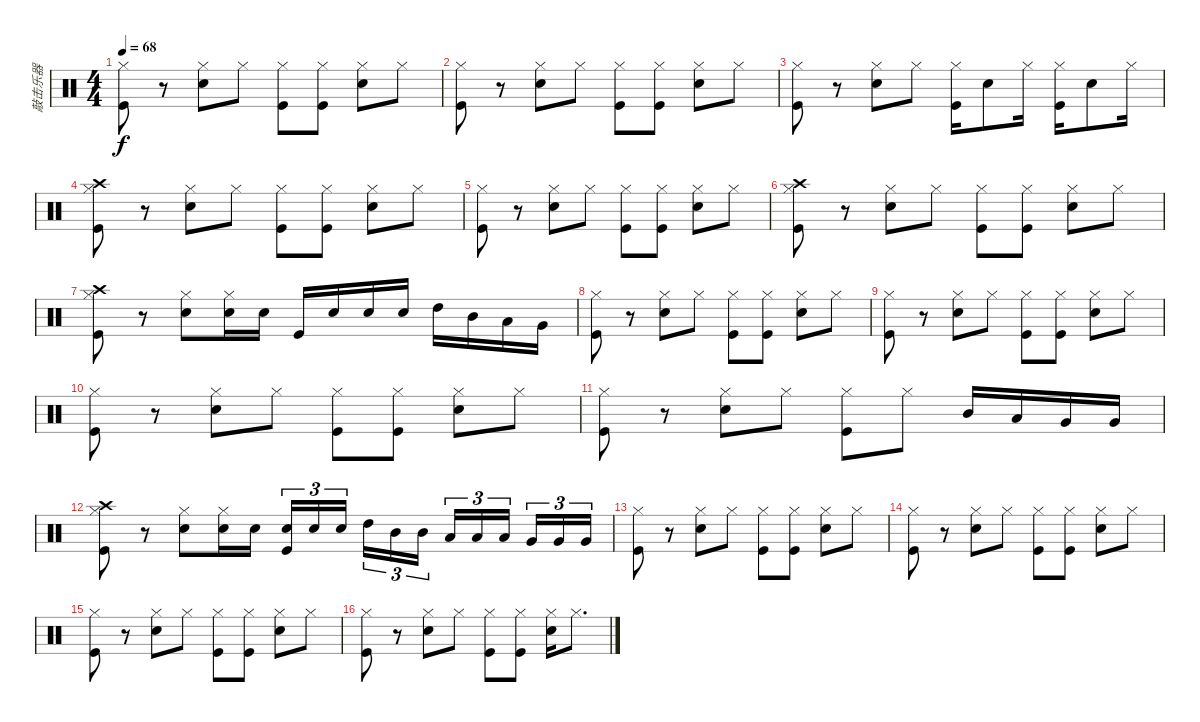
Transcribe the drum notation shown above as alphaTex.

\track ("敲击乐器" "敲击乐器") {instrument percussion}
\staff {score}
\articulation defaults
\ts (4 4)
\tempo 68
\clef neutral
\ks c
("Hi-Hat (closed)" "Kick (hit)").8{dy f} r.8 ("Hi-Hat (closed)" "Snare (hit) 2").8 "Hi-Hat (closed)".8 ("Hi-Hat (closed)" "Kick (hit)").8 ("Hi-Hat (closed)" "Kick (hit)").8 ("Hi-Hat (closed)" "Snare (hit) 2").8 "Hi-Hat (closed)".8 |
("Hi-Hat (closed)" "Kick (hit)").8 r.8 ("Hi-Hat (closed)" "Snare (hit) 2").8 "Hi-Hat (closed)".8 ("Hi-Hat (closed)" "Kick (hit)").8 ("Hi-Hat (closed)" "Kick (hit)").8 ("Hi-Hat (closed)" "Snare (hit) 2").8 "Hi-Hat (closed)".8 |
("Hi-Hat (closed)" "Kick (hit)").8 r.8 ("Hi-Hat (closed)" "Snare (hit) 2").8 "Hi-Hat (closed)".8 ("Hi-Hat (closed)" "Kick (hit)").16 "Snare (hit) 2".8 "Hi-Hat (closed)".16 ("Hi-Hat (closed)" "Kick (hit)").16 "Snare (hit) 2".8 "Hi-Hat (closed)".16 |
("Hi-Hat (closed)" "Crash high (hit)" "Kick (hit)").8 r.8 ("Hi-Hat (closed)" "Snare (hit) 2").8 "Hi-Hat (closed)".8 ("Hi-Hat (closed)" "Kick (hit)").8 ("Hi-Hat (closed)" "Kick (hit)").8 ("Hi-Hat (closed)" "Snare (hit) 2").8 "Hi-Hat (closed)".8 |
("Hi-Hat (closed)" "Kick (hit)").8 r.8 ("Hi-Hat (closed)" "Snare (hit) 2").8 "Hi-Hat (closed)".8 ("Hi-Hat (closed)" "Kick (hit)").8 ("Hi-Hat (closed)" "Kick (hit)").8 ("Hi-Hat (closed)" "Snare (hit) 2").8 "Hi-Hat (closed)".8 |
("Hi-Hat (closed)" "Crash high (hit)" "Kick (hit)").8 r.8 ("Hi-Hat (closed)" "Snare (hit) 2").8 "Hi-Hat (closed)".8 ("Hi-Hat (closed)" "Kick (hit)").8 ("Hi-Hat (closed)" "Kick (hit)").8 ("Hi-Hat (closed)" "Snare (hit) 2").8 "Hi-Hat (closed)".8 |
("Hi-Hat (closed)" "Crash high (hit)" "Kick (hit)").8 r.8 ("Hi-Hat (closed)" "Snare (hit) 2").8 ("Hi-Hat (closed)" "Snare (hit) 2").16 "Snare (hit) 2".16 "Kick (hit)".16 "Snare (hit) 2".16 "Snare (hit) 2".16 "Snare (hit) 2".16 "High Tom (hit)".16 "Mid Tom (hit)".16 "Low Tom (hit)".16 "Very Low Tom (hit)".16 |
("Hi-Hat (closed)" "Kick (hit)").8 r.8 ("Hi-Hat (closed)" "Snare (hit) 2").8 "Hi-Hat (closed)".8 ("Hi-Hat (closed)" "Kick (hit)").8 ("Hi-Hat (closed)" "Kick (hit)").8 ("Hi-Hat (closed)" "Snare (hit) 2").8 "Hi-Hat (closed)".8 |
("Hi-Hat (closed)" "Kick (hit)").8 r.8 ("Hi-Hat (closed)" "Snare (hit) 2").8 "Hi-Hat (closed)".8 ("Hi-Hat (closed)" "Kick (hit)").8 ("Hi-Hat (closed)" "Kick (hit)").8 ("Hi-Hat (closed)" "Snare (hit) 2").8 "Hi-Hat (closed)".8 |
("Hi-Hat (closed)" "Kick (hit)").8 r.8 ("Hi-Hat (closed)" "Snare (hit) 2").8 "Hi-Hat (closed)".8 ("Hi-Hat (closed)" "Kick (hit)").8 ("Hi-Hat (closed)" "Kick (hit)").8 ("Hi-Hat (closed)" "Snare (hit) 2").8 "Hi-Hat (closed)".8 |
("Hi-Hat (closed)" "Kick (hit)").8 r.8 ("Hi-Hat (closed)" "Snare (hit) 2").8 "Hi-Hat (closed)".8 ("Hi-Hat (closed)" "Kick (hit)").8 "Hi-Hat (closed)".8 "Mid Tom (hit)".16 "Low Tom (hit)".16 "Very Low Tom (hit)".16 "Very Low Tom (hit)".16 |
("Hi-Hat (closed)" "Crash high (hit)" "Kick (hit)").8 r.8 ("Hi-Hat (closed)" "Snare (hit) 2").8 ("Hi-Hat (closed)" "Snare (hit) 2").16 "Snare (hit) 2".16 ("Snare (hit) 2" "Kick (hit)").16{tu (3 2)} "Snare (hit) 2".16{tu (3 2)} "Snare (hit) 2".16{tu (3 2) beam splitsecondary} "High Tom (hit)".16{tu (3 2)} "Mid Tom (hit)".16{tu (3 2)} "Mid Tom (hit)".16{tu (3 2)} "Low Tom (hit)".16{tu (3 2)} "Low Tom (hit)".16{tu (3 2)} "Low Tom (hit)".16{tu (3 2) beam splitsecondary} "Very Low Tom (hit)".16{tu (3 2)} "Very Low Tom (hit)".16{tu (3 2)} "Very Low Tom (hit)".16{tu (3 2)} |
("Hi-Hat (closed)" "Kick (hit)").8 r.8 ("Hi-Hat (closed)" "Snare (hit) 2").8 "Hi-Hat (closed)".8 ("Hi-Hat (closed)" "Kick (hit)").8 ("Hi-Hat (closed)" "Kick (hit)").8 ("Hi-Hat (closed)" "Snare (hit) 2").8 "Hi-Hat (closed)".8 |
("Hi-Hat (closed)" "Kick (hit)").8 r.8 ("Hi-Hat (closed)" "Snare (hit) 2").8 "Hi-Hat (closed)".8 ("Hi-Hat (closed)" "Kick (hit)").8 ("Hi-Hat (closed)" "Kick (hit)").8 ("Hi-Hat (closed)" "Snare (hit) 2").8 "Hi-Hat (closed)".8 |
("Hi-Hat (closed)" "Kick (hit)").8 r.8 ("Hi-Hat (closed)" "Snare (hit) 2").8 "Hi-Hat (closed)".8 ("Hi-Hat (closed)" "Kick (hit)").8 ("Hi-Hat (closed)" "Kick (hit)").8 ("Hi-Hat (closed)" "Snare (hit) 2").8 "Hi-Hat (closed)".8 |
("Hi-Hat (closed)" "Kick (hit)").8 r.8 ("Hi-Hat (closed)" "Snare (hit) 2").8 "Hi-Hat (closed)".8 ("Hi-Hat (closed)" "Kick (hit)").8 ("Hi-Hat (closed)" "Kick (hit)").8 ("Hi-Hat (closed)" "Snare (hit) 2").16 "Hi-Hat (closed)".8{d}
